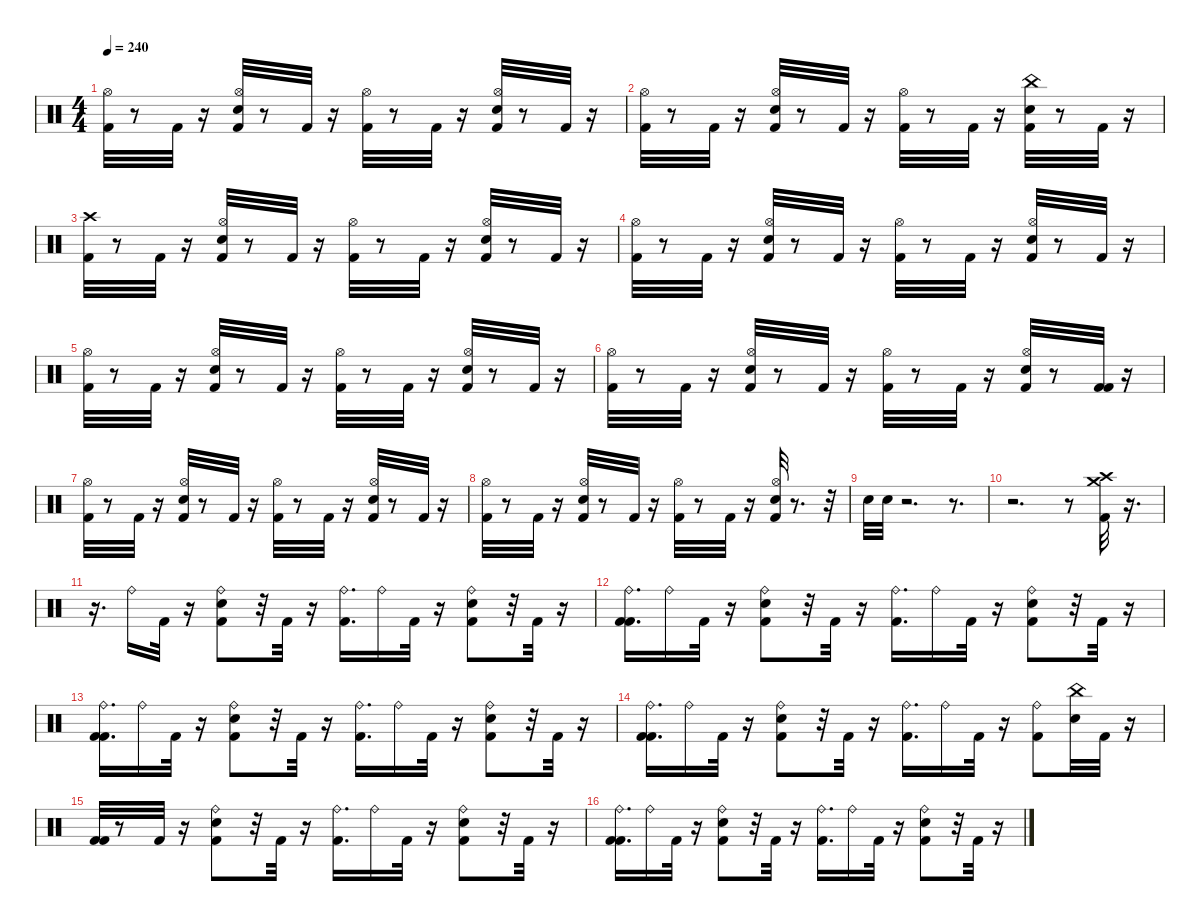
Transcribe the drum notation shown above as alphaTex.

\defaultSystemsLayout 4
\hideDynamics
\bracketExtendMode nobrackets
\singleTrackTrackNamePolicy hidden
\multiTrackTrackNamePolicy hidden
\otherSystemsTrackNameOrientation horizontal
\track ("Drums" "drm.") {instrument percussion}
\staff {score}
\articulation defaults
\ts (4 4)
\tempo 240
\clef neutral
\ks c
("Kick (hit) 2" "Hi-Hat (open)").32{dy f} r.8 "Kick (hit) 2".32 r.16 ("Snare (hit) 2" "Hi-Hat (open)" "Kick (hit) 2").32 r.8 "Kick (hit) 2".32 r.16 ("Hi-Hat (open)" "Kick (hit) 2").32 r.8 "Kick (hit) 2".32 r.16 ("Kick (hit) 2" "Snare (hit) 2" "Hi-Hat (open)").32 r.8 "Kick (hit) 2".32 r.16 |
("Kick (hit) 2" "Hi-Hat (open)").32 r.8 "Kick (hit) 2".32 r.16 ("Hi-Hat (open)" "Kick (hit) 2" "Snare (hit) 2").32 r.8 "Kick (hit) 2".32 r.16 ("Hi-Hat (open)" "Kick (hit) 2").32 r.8 "Kick (hit) 2".32 r.16 ("China (hit)" "Kick (hit) 2" "Snare (hit) 2").32 r.8 "Kick (hit) 2".32 r.16 |
("Kick (hit) 2" "Crash high (hit)").32 r.8 "Kick (hit) 2".32 r.16 ("Kick (hit) 2" "Hi-Hat (open)" "Snare (hit) 2").32 r.8 "Kick (hit) 2".32 r.16 ("Hi-Hat (open)" "Kick (hit) 2").32 r.8 "Kick (hit) 2".32 r.16 ("Kick (hit) 2" "Hi-Hat (open)" "Snare (hit) 2").32 r.8 "Kick (hit) 2".32 r.16 |
("Hi-Hat (open)" "Kick (hit) 2").32 r.8 "Kick (hit) 2".32 r.16 ("Snare (hit) 2" "Kick (hit) 2" "Hi-Hat (open)").32 r.8 "Kick (hit) 2".32 r.16 ("Kick (hit) 2" "Hi-Hat (open)").32 r.8 "Kick (hit) 2".32 r.16 ("Hi-Hat (open)" "Snare (hit) 2" "Kick (hit) 2").32 r.8 "Kick (hit) 2".32 r.16 |
("Hi-Hat (open)" "Kick (hit) 2").32 r.8 "Kick (hit) 2".32 r.16 ("Hi-Hat (open)" "Kick (hit) 2" "Snare (hit) 2").32 r.8 "Kick (hit) 2".32 r.16 ("Kick (hit) 2" "Hi-Hat (open)").32 r.8 "Kick (hit) 2".32 r.16 ("Hi-Hat (open)" "Kick (hit) 2" "Snare (hit) 2").32 r.8 "Kick (hit) 2".32 r.16 |
("Hi-Hat (open)" "Kick (hit) 2").32 r.8 "Kick (hit) 2".32 r.16 ("Hi-Hat (open)" "Snare (hit) 2" "Kick (hit) 2").32 r.8 "Kick (hit) 2".32 r.16 ("Hi-Hat (open)" "Kick (hit) 2").32 r.8 "Kick (hit) 2".32 r.16 ("Kick (hit) 2" "Hi-Hat (open)" "Snare (hit) 2").32 r.8 ("Kick (hit) 2" "Kick (hit) 2").32 r.16 |
("Kick (hit) 2" "Hi-Hat (open)").32 r.8 "Kick (hit) 2".32 r.16 ("Snare (hit) 2" "Kick (hit) 2" "Hi-Hat (open)").32 r.8 "Kick (hit) 2".32 r.16 ("Kick (hit) 2" "Hi-Hat (open)").32 r.8 "Kick (hit) 2".32 r.16 ("Hi-Hat (open)" "Snare (hit) 2" "Kick (hit) 2").32 r.8 "Kick (hit) 2".32 r.16 |
("Hi-Hat (open)" "Kick (hit) 2").32 r.8 "Kick (hit) 2".32 r.16 ("Snare (hit) 2" "Kick (hit) 2" "Hi-Hat (open)").32 r.8 "Kick (hit) 2".32 r.16 ("Kick (hit) 2" "Hi-Hat (open)").32 r.8 "Kick (hit) 2".32 r.16 ("Kick (hit) 2" "Snare (hit) 2" "Hi-Hat (open)").32 r.8{d} r.32 |
"Snare (hit) 2".32 "Snare (hit) 2".32 r.2{d} r.8{d} |
r.2{d} r.8 ("Kick (hit) 2" "Crash high (hit)" "Crash medium (hit)").32 r.16{d} |
r.16{d} "Ride (bell)".16{dy fff} "Kick (hit) 2".32{dy f} r.16 ("Kick (hit) 2" "Ride (bell)" "Snare (hit) 2").8 r.32 "Kick (hit) 2".32 r.16 ("Ride (bell)" "Kick (hit) 2").16{d dy fff} "Ride (bell)".16 "Kick (hit) 2".32{dy f} r.16 ("Snare (hit) 2" "Kick (hit) 2" "Ride (bell)").8{dy fff} r.32 "Kick (hit) 2".32{dy f} r.16 |
("Kick (hit) 2" "Ride (bell)" "Kick (hit) 2").16{d} "Ride (bell)".16{dy fff} "Kick (hit) 2".32{dy f} r.16 ("Ride (bell)" "Kick (hit) 2" "Snare (hit) 2").8{dy fff} r.32 "Kick (hit) 2".32{dy f} r.16 ("Ride (bell)" "Kick (hit) 2").16{d dy fff} "Ride (bell)".16 "Kick (hit) 2".32{dy f} r.16 ("Ride (bell)" "Kick (hit) 2" "Snare (hit) 2").8{dy fff} r.32 "Kick (hit) 2".32{dy f} r.16 |
("Ride (bell)" "Kick (hit) 2" "Kick (hit) 2").16{d dy fff} "Ride (bell)".16 "Kick (hit) 2".32{dy f} r.16 ("Kick (hit) 2" "Ride (bell)" "Snare (hit) 2").8 r.32 "Kick (hit) 2".32 r.16 ("Ride (bell)" "Kick (hit) 2").16{d dy fff} "Ride (bell)".16 "Kick (hit) 2".32{dy f} r.16 ("Ride (bell)" "Kick (hit) 2" "Snare (hit) 2").8{dy fff} r.32 "Kick (hit) 2".32{dy f} r.16 |
("Kick (hit) 2" "Kick (hit) 2" "Ride (bell)").16{d} "Ride (bell)".16{dy fff} "Kick (hit) 2".32{dy f} r.16 ("Ride (bell)" "Kick (hit) 2" "Snare (hit) 2").8{dy fff} r.32 "Kick (hit) 2".32{dy f} r.16 ("Ride (bell)" "Kick (hit) 2").16{d dy fff} "Ride (bell)".16 "Kick (hit) 2".32{dy f} r.16 ("Kick (hit) 2" "Ride (bell)").8 ("China (hit)" "Snare (hit) 2").32{dy fff} "Kick (hit) 2".32{dy f} r.16 |
("Kick (hit) 2" "Kick (hit) 2").32 r.8 "Kick (hit) 2".32 r.16 ("Kick (hit) 2" "Ride (bell)" "Snare (hit) 2").8 r.32 "Kick (hit) 2".32 r.16 ("Kick (hit) 2" "Ride (bell)").16{d} "Ride (bell)".16{dy fff} "Kick (hit) 2".32{dy f} r.16 ("Snare (hit) 2" "Ride (bell)" "Kick (hit) 2").8{dy fff} r.32 "Kick (hit) 2".32{dy f} r.16 |
("Kick (hit) 2" "Kick (hit) 2" "Ride (bell)").16{d} "Ride (bell)".16{dy fff} "Kick (hit) 2".32{dy f} r.16 ("Ride (bell)" "Snare (hit) 2" "Kick (hit) 2").8{dy fff} r.32 "Kick (hit) 2".32{dy f} r.16 ("Kick (hit) 2" "Ride (bell)").16{d} "Ride (bell)".16{dy fff} "Kick (hit) 2".32{dy f} r.16 ("Snare (hit) 2" "Ride (bell)" "Kick (hit) 2").8{dy fff} r.32 "Kick (hit) 2".32{dy f} r.16
